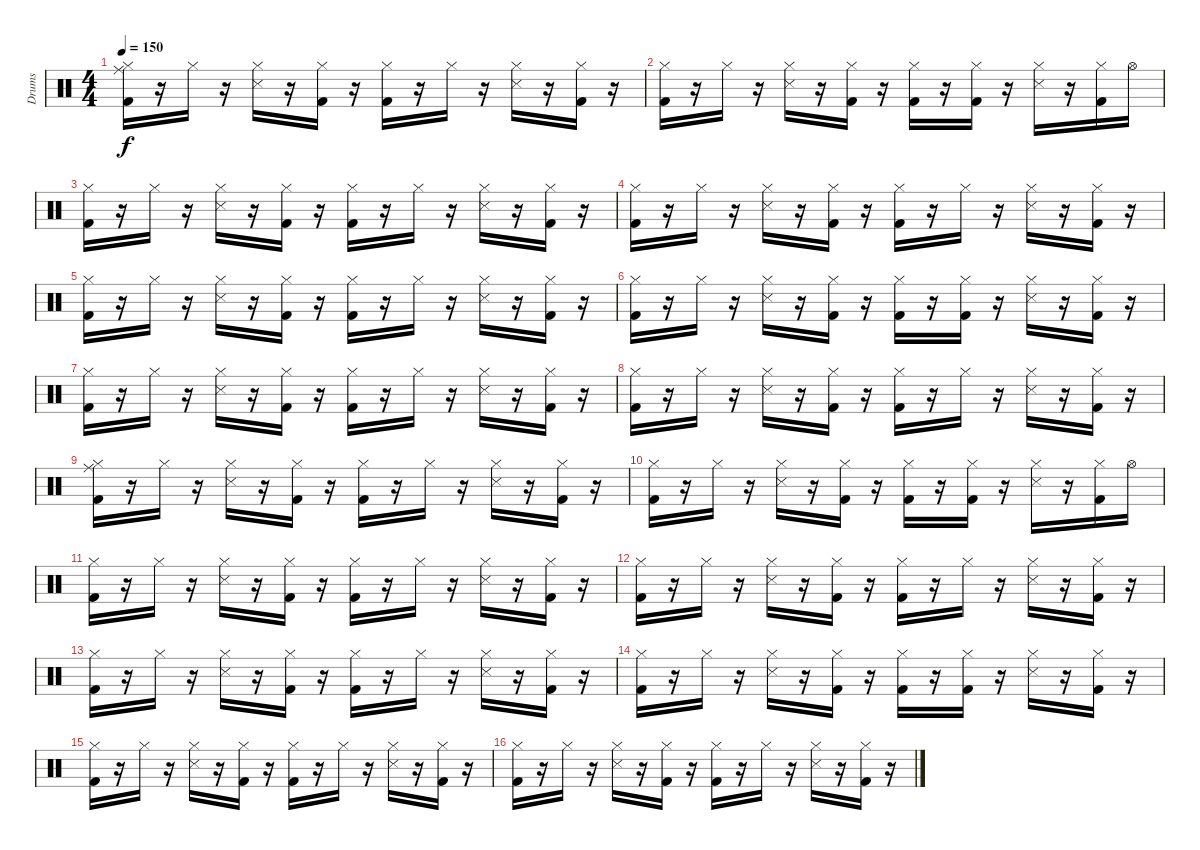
\track ("Drums" "Drums") {instrument percussion}
\staff {score}
\articulation defaults
\ts (4 4)
\tempo 150
\clef neutral
\ks c
("Kick (hit) 2" "Hi-Hat (closed)" "Ride (middle)").16{dy f} r.16 "Hi-Hat (closed)".16{volume 11} r.16 ("Hi-Hat (closed)" "Snare (side stick) 3").16 r.16 ("Kick (hit) 2" "Hi-Hat (closed)").16 r.16 ("Kick (hit) 2" "Hi-Hat (closed)").16 r.16 "Hi-Hat (closed)".16 r.16 ("Hi-Hat (closed)" "Snare (side stick) 3").16 r.16 ("Kick (hit) 2" "Hi-Hat (closed)").16 r.16 |
("Kick (hit) 2" "Hi-Hat (closed)").16 r.16 "Hi-Hat (closed)".16 r.16 ("Hi-Hat (closed)" "Snare (side stick) 3").16 r.16 ("Kick (hit) 2" "Hi-Hat (closed)").16 r.16 ("Kick (hit) 2" "Hi-Hat (closed)").16 r.16 ("Kick (hit) 2" "Hi-Hat (closed)").16 r.16 ("Hi-Hat (closed)" "Snare (side stick) 3").16 r.16 ("Kick (hit) 2" "Hi-Hat (closed)").16 "Hi-Hat (open)".16 |
("Kick (hit) 2" "Hi-Hat (closed)").16 r.16 "Hi-Hat (closed)".16 r.16 ("Hi-Hat (closed)" "Snare (side stick) 3").16 r.16 ("Kick (hit) 2" "Hi-Hat (closed)").16 r.16 ("Kick (hit) 2" "Hi-Hat (closed)").16 r.16 "Hi-Hat (closed)".16 r.16 ("Hi-Hat (closed)" "Snare (side stick) 3").16 r.16 ("Kick (hit) 2" "Hi-Hat (closed)").16 r.16 |
("Kick (hit) 2" "Hi-Hat (closed)").16 r.16 "Hi-Hat (closed)".16 r.16 ("Hi-Hat (closed)" "Snare (side stick) 3").16 r.16 ("Kick (hit) 2" "Hi-Hat (closed)").16 r.16 ("Kick (hit) 2" "Hi-Hat (closed)").16 r.16 "Hi-Hat (closed)".16 r.16 ("Hi-Hat (closed)" "Snare (side stick) 3").16 r.16 ("Kick (hit) 2" "Hi-Hat (closed)").16 r.16 |
("Kick (hit) 2" "Hi-Hat (closed)").16 r.16 "Hi-Hat (closed)".16 r.16 ("Hi-Hat (closed)" "Snare (side stick) 3").16 r.16 ("Kick (hit) 2" "Hi-Hat (closed)").16 r.16 ("Kick (hit) 2" "Hi-Hat (closed)").16 r.16 "Hi-Hat (closed)".16 r.16 ("Hi-Hat (closed)" "Snare (side stick) 3").16 r.16 ("Kick (hit) 2" "Hi-Hat (closed)").16 r.16 |
("Kick (hit) 2" "Hi-Hat (closed)").16 r.16 "Hi-Hat (closed)".16 r.16 ("Hi-Hat (closed)" "Snare (side stick) 3").16 r.16 ("Kick (hit) 2" "Hi-Hat (closed)").16 r.16 ("Kick (hit) 2" "Hi-Hat (closed)").16 r.16 ("Kick (hit) 2" "Hi-Hat (closed)").16 r.16 ("Hi-Hat (closed)" "Snare (side stick) 3").16 r.16 ("Kick (hit) 2" "Hi-Hat (closed)").16 r.16 |
("Kick (hit) 2" "Hi-Hat (closed)").16 r.16 "Hi-Hat (closed)".16 r.16 ("Hi-Hat (closed)" "Snare (side stick) 3").16 r.16 ("Kick (hit) 2" "Hi-Hat (closed)").16 r.16 ("Kick (hit) 2" "Hi-Hat (closed)").16 r.16 "Hi-Hat (closed)".16 r.16 ("Hi-Hat (closed)" "Snare (side stick) 3").16 r.16 ("Kick (hit) 2" "Hi-Hat (closed)").16 r.16 |
("Kick (hit) 2" "Hi-Hat (closed)").16 r.16 "Hi-Hat (closed)".16 r.16 ("Hi-Hat (closed)" "Snare (side stick) 3").16 r.16 ("Kick (hit) 2" "Hi-Hat (closed)").16 r.16 ("Kick (hit) 2" "Hi-Hat (closed)").16 r.16 "Hi-Hat (closed)".16 r.16 ("Hi-Hat (closed)" "Snare (side stick) 3").16 r.16 ("Kick (hit) 2" "Hi-Hat (closed)").16 r.16 |
("Kick (hit) 2" "Hi-Hat (closed)" "Ride (middle)").16 r.16 "Hi-Hat (closed)".16{volume 11} r.16 ("Hi-Hat (closed)" "Snare (side stick) 3").16 r.16 ("Kick (hit) 2" "Hi-Hat (closed)").16 r.16 ("Kick (hit) 2" "Hi-Hat (closed)").16 r.16 "Hi-Hat (closed)".16 r.16 ("Hi-Hat (closed)" "Snare (side stick) 3").16 r.16 ("Kick (hit) 2" "Hi-Hat (closed)").16 r.16 |
("Kick (hit) 2" "Hi-Hat (closed)").16 r.16 "Hi-Hat (closed)".16 r.16 ("Hi-Hat (closed)" "Snare (side stick) 3").16 r.16 ("Kick (hit) 2" "Hi-Hat (closed)").16 r.16 ("Kick (hit) 2" "Hi-Hat (closed)").16 r.16 ("Kick (hit) 2" "Hi-Hat (closed)").16 r.16 ("Hi-Hat (closed)" "Snare (side stick) 3").16 r.16 ("Kick (hit) 2" "Hi-Hat (closed)").16 "Hi-Hat (open)".16 |
("Kick (hit) 2" "Hi-Hat (closed)").16 r.16 "Hi-Hat (closed)".16 r.16 ("Hi-Hat (closed)" "Snare (side stick) 3").16 r.16 ("Kick (hit) 2" "Hi-Hat (closed)").16 r.16 ("Kick (hit) 2" "Hi-Hat (closed)").16 r.16 "Hi-Hat (closed)".16 r.16 ("Hi-Hat (closed)" "Snare (side stick) 3").16 r.16 ("Kick (hit) 2" "Hi-Hat (closed)").16 r.16 |
("Kick (hit) 2" "Hi-Hat (closed)").16 r.16 "Hi-Hat (closed)".16 r.16 ("Hi-Hat (closed)" "Snare (side stick) 3").16 r.16 ("Kick (hit) 2" "Hi-Hat (closed)").16 r.16 ("Kick (hit) 2" "Hi-Hat (closed)").16 r.16 "Hi-Hat (closed)".16 r.16 ("Hi-Hat (closed)" "Snare (side stick) 3").16 r.16 ("Kick (hit) 2" "Hi-Hat (closed)").16 r.16 |
("Kick (hit) 2" "Hi-Hat (closed)").16 r.16 "Hi-Hat (closed)".16 r.16 ("Hi-Hat (closed)" "Snare (side stick) 3").16 r.16 ("Kick (hit) 2" "Hi-Hat (closed)").16 r.16 ("Kick (hit) 2" "Hi-Hat (closed)").16 r.16 "Hi-Hat (closed)".16 r.16 ("Hi-Hat (closed)" "Snare (side stick) 3").16 r.16 ("Kick (hit) 2" "Hi-Hat (closed)").16 r.16 |
("Kick (hit) 2" "Hi-Hat (closed)").16 r.16 "Hi-Hat (closed)".16 r.16 ("Hi-Hat (closed)" "Snare (side stick) 3").16 r.16 ("Kick (hit) 2" "Hi-Hat (closed)").16 r.16 ("Kick (hit) 2" "Hi-Hat (closed)").16 r.16 ("Kick (hit) 2" "Hi-Hat (closed)").16 r.16 ("Hi-Hat (closed)" "Snare (side stick) 3").16 r.16 ("Kick (hit) 2" "Hi-Hat (closed)").16 r.16 |
("Kick (hit) 2" "Hi-Hat (closed)").16 r.16 "Hi-Hat (closed)".16 r.16 ("Hi-Hat (closed)" "Snare (side stick) 3").16 r.16 ("Kick (hit) 2" "Hi-Hat (closed)").16 r.16 ("Kick (hit) 2" "Hi-Hat (closed)").16 r.16 "Hi-Hat (closed)".16 r.16 ("Hi-Hat (closed)" "Snare (side stick) 3").16 r.16 ("Kick (hit) 2" "Hi-Hat (closed)").16 r.16 |
("Kick (hit) 2" "Hi-Hat (closed)").16 r.16 "Hi-Hat (closed)".16 r.16 ("Hi-Hat (closed)" "Snare (side stick) 3").16 r.16 ("Kick (hit) 2" "Hi-Hat (closed)").16 r.16 ("Kick (hit) 2" "Hi-Hat (closed)").16 r.16 "Hi-Hat (closed)".16 r.16 ("Hi-Hat (closed)" "Snare (side stick) 3").16 r.16 ("Kick (hit) 2" "Hi-Hat (closed)").16 r.16
